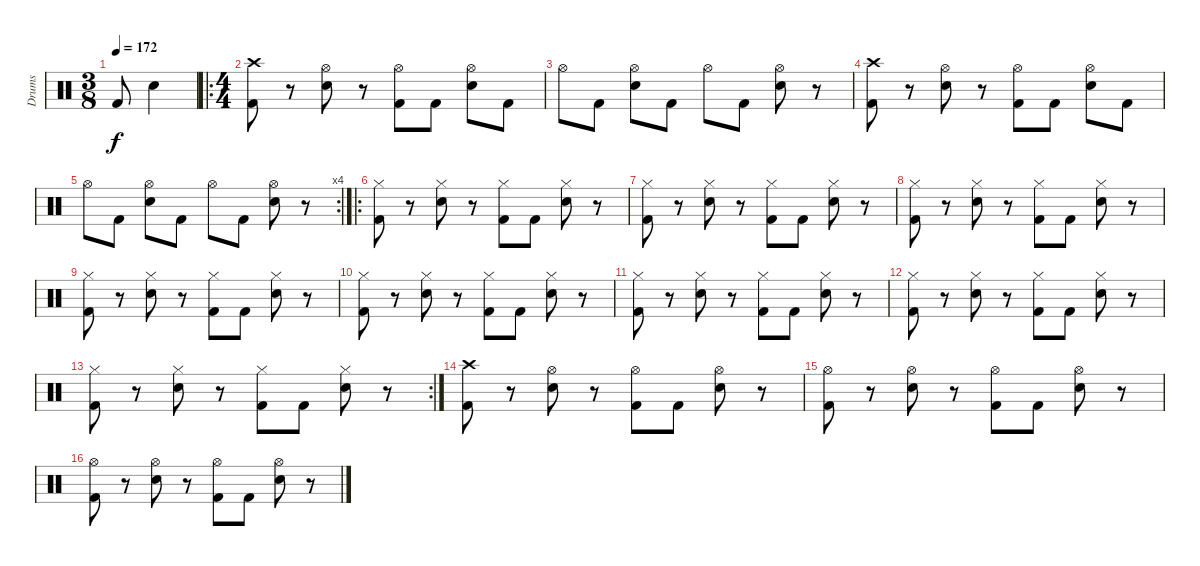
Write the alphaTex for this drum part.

\track ("Drums" "Drums") {instrument percussion}
\staff {score}
\articulation defaults
\ts (3 8)
\tempo 172
\clef neutral
\ks c "Kick (hit) 2".8{dy f} "Electric Snare (hit)".4
|
\ro
\ts (4 4)
("Crash high (hit)" "Kick (hit) 2").8 r.8 ("Hi-Hat (open)" "Snare (hit) 2").8 r.8 ("Hi-Hat (open)" "Kick (hit) 2").8 "Kick (hit) 2".8 ("Hi-Hat (open)" "Snare (hit) 2").8 "Kick (hit) 2".8 |
"Hi-Hat (open)".8 "Kick (hit) 2".8 ("Hi-Hat (open)" "Snare (hit) 2").8 "Kick (hit) 2".8 "Hi-Hat (open)".8 "Kick (hit) 2".8 ("Hi-Hat (open)" "Snare (hit) 2").8 r.8 |
("Crash high (hit)" "Kick (hit) 2").8 r.8 ("Hi-Hat (open)" "Snare (hit) 2").8 r.8 ("Hi-Hat (open)" "Kick (hit) 2").8 "Kick (hit) 2".8 ("Hi-Hat (open)" "Snare (hit) 2").8 "Kick (hit) 2".8 |
\rc 4 "Hi-Hat (open)".8 "Kick (hit) 2".8
("Hi-Hat (open)" "Snare (hit) 2").8 "Kick (hit) 2".8 "Hi-Hat (open)".8 "Kick (hit) 2".8 ("Hi-Hat (open)" "Snare (hit) 2").8 r.8 |
\ro
("Hi-Hat (closed)" "Kick (hit) 2").8 r.8 ("Hi-Hat (closed)" "Snare (hit) 2").8 r.8 ("Hi-Hat (closed)" "Kick (hit) 2").8 "Kick (hit) 2".8 ("Hi-Hat (closed)" "Snare (hit) 2").8 r.8 |
("Hi-Hat (closed)" "Kick (hit) 2").8 r.8 ("Hi-Hat (closed)" "Snare (hit) 2").8 r.8 ("Hi-Hat (closed)" "Kick (hit) 2").8 "Kick (hit) 2".8 ("Hi-Hat (closed)" "Snare (hit) 2").8 r.8 |
("Hi-Hat (closed)" "Kick (hit) 2").8 r.8 ("Hi-Hat (closed)" "Snare (hit) 2").8 r.8 ("Hi-Hat (closed)" "Kick (hit) 2").8 "Kick (hit) 2".8 ("Hi-Hat (closed)" "Snare (hit) 2").8 r.8 |
("Hi-Hat (closed)" "Kick (hit) 2").8 r.8 ("Hi-Hat (closed)" "Snare (hit) 2").8 r.8 ("Hi-Hat (closed)" "Kick (hit) 2").8 "Kick (hit) 2".8 ("Hi-Hat (closed)" "Snare (hit) 2").8 r.8 |
("Hi-Hat (closed)" "Kick (hit) 2").8 r.8 ("Hi-Hat (closed)" "Snare (hit) 2").8 r.8 ("Hi-Hat (closed)" "Kick (hit) 2").8 "Kick (hit) 2".8 ("Hi-Hat (closed)" "Snare (hit) 2").8 r.8 |
("Hi-Hat (closed)" "Kick (hit) 2").8 r.8 ("Hi-Hat (closed)" "Snare (hit) 2").8 r.8 ("Hi-Hat (closed)" "Kick (hit) 2").8 "Kick (hit) 2".8 ("Hi-Hat (closed)" "Snare (hit) 2").8 r.8 |
("Hi-Hat (closed)" "Kick (hit) 2").8 r.8 ("Hi-Hat (closed)" "Snare (hit) 2").8 r.8 ("Hi-Hat (closed)" "Kick (hit) 2").8 "Kick (hit) 2".8 ("Hi-Hat (closed)" "Snare (hit) 2").8 r.8 |
\rc 2
("Hi-Hat (closed)" "Kick (hit) 2").8 r.8 ("Hi-Hat (closed)" "Snare (hit) 2").8 r.8 ("Hi-Hat (closed)" "Kick (hit) 2").8 "Kick (hit) 2".8 ("Hi-Hat (closed)" "Snare (hit) 2").8 r.8 |
("Crash high (hit)" "Kick (hit) 2").8 r.8 ("Hi-Hat (open)" "Snare (hit) 2").8 r.8 ("Hi-Hat (open)" "Kick (hit) 2").8 "Kick (hit) 2".8 ("Hi-Hat (open)" "Snare (hit) 2").8 r.8 |
("Hi-Hat (open)" "Kick (hit) 2").8 r.8 ("Hi-Hat (open)" "Snare (hit) 2").8 r.8 ("Hi-Hat (open)" "Kick (hit) 2").8 "Kick (hit) 2".8 ("Hi-Hat (open)" "Snare (hit) 2").8 r.8 |
("Hi-Hat (open)" "Kick (hit) 2").8 r.8 ("Hi-Hat (open)" "Snare (hit) 2").8 r.8 ("Hi-Hat (open)" "Kick (hit) 2").8 "Kick (hit) 2".8 ("Hi-Hat (open)" "Snare (hit) 2").8 r.8
